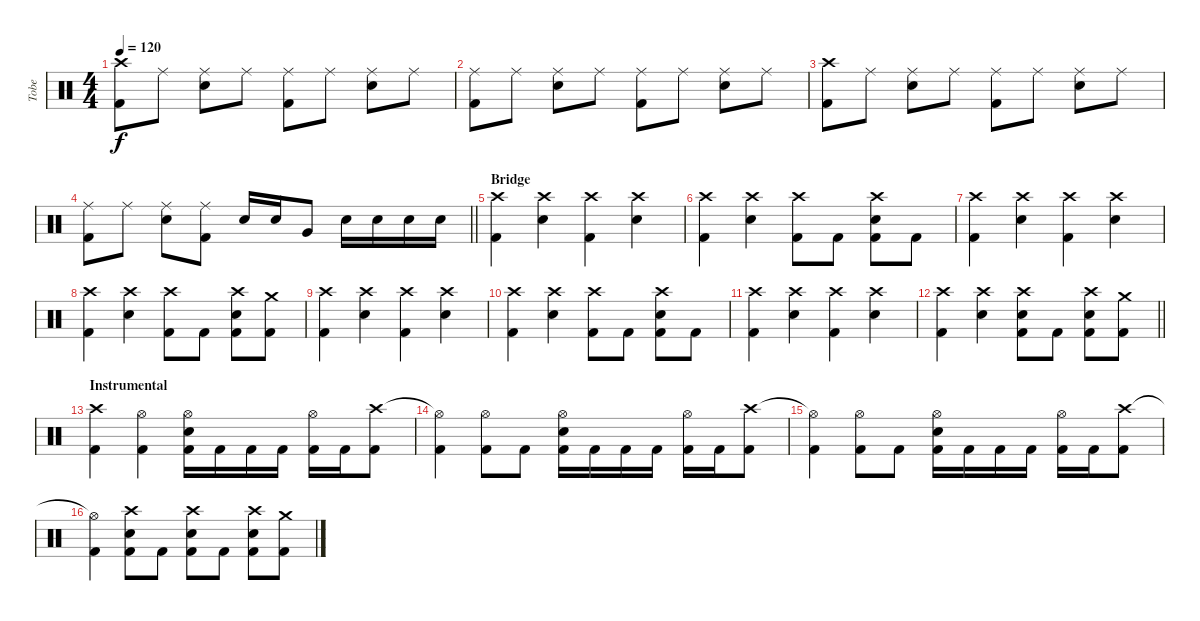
\track ("Tobe" "Tobe") {instrument percussion}
\staff {score}
\articulation defaults
\ts (4 4)
\tempo 120
\clef neutral
\ks c
("Crash high (hit)" "Kick (hit) 2").8{dy f} "Ride (middle)".8 ("Ride (middle)" "Snare (hit) 2").8 "Ride (middle)".8 ("Ride (middle)" "Kick (hit) 2").8 "Ride (middle)".8 ("Ride (middle)" "Snare (hit) 2").8 "Ride (middle)".8 |
("Ride (middle)" "Kick (hit) 2").8 "Ride (middle)".8 ("Ride (middle)" "Snare (hit) 2").8 "Ride (middle)".8 ("Ride (middle)" "Kick (hit) 2").8 "Ride (middle)".8 ("Ride (middle)" "Snare (hit) 2").8 "Ride (middle)".8 |
("Crash high (hit)" "Kick (hit) 2").8 "Ride (middle)".8 ("Ride (middle)" "Snare (hit) 2").8 "Ride (middle)".8 ("Ride (middle)" "Kick (hit) 2").8 "Ride (middle)".8 ("Ride (middle)" "Snare (hit) 2").8 "Ride (middle)".8 |
\barLineRight lightlight
("Ride (middle)" "Kick (hit) 2").8 "Ride (middle)".8 ("Ride (middle)" "Snare (hit) 2").8 ("Ride (middle)" "Kick (hit) 2").8 "Snare (hit) 2".16 "Snare (hit) 2".16 "Very Low Tom (hit)".8 "Snare (hit) 2".16 "Snare (hit) 2".16 "Snare (hit) 2".16 "Snare (hit) 2".16 |
\section ("" "Bridge")
("Crash high (hit)" "Kick (hit) 2").4 ("Crash high (hit)" "Snare (hit) 2").4 ("Crash high (hit)" "Kick (hit) 2").4 ("Crash high (hit)" "Snare (hit) 2").4 |
("Crash high (hit)" "Kick (hit) 2").4 ("Crash high (hit)" "Snare (hit) 2").4 ("Crash high (hit)" "Kick (hit) 2").8 "Kick (hit) 2".8 ("Crash high (hit)" "Snare (hit) 2" "Kick (hit) 2").8 "Kick (hit) 2".8 |
("Crash high (hit)" "Kick (hit) 2").4 ("Crash high (hit)" "Snare (hit) 2").4 ("Crash high (hit)" "Kick (hit) 2").4 ("Crash high (hit)" "Snare (hit) 2").4 |
("Crash high (hit)" "Kick (hit) 2").4 ("Crash high (hit)" "Snare (hit) 2").4 ("Crash high (hit)" "Kick (hit) 2").8 "Kick (hit) 2".8 ("Crash high (hit)" "Snare (hit) 2" "Kick (hit) 2").8 ("Crash medium (hit)" "Kick (hit) 2").8 |
("Crash high (hit)" "Kick (hit) 2").4 ("Crash high (hit)" "Snare (hit) 2").4 ("Crash high (hit)" "Kick (hit) 2").4 ("Crash high (hit)" "Snare (hit) 2").4 |
("Crash high (hit)" "Kick (hit) 2").4 ("Crash high (hit)" "Snare (hit) 2").4 ("Crash high (hit)" "Kick (hit) 2").8 "Kick (hit) 2".8 ("Crash high (hit)" "Snare (hit) 2" "Kick (hit) 2").8 "Kick (hit) 2".8 |
("Crash high (hit)" "Kick (hit) 2").4 ("Crash high (hit)" "Snare (hit) 2").4 ("Crash high (hit)" "Kick (hit) 2").4 ("Crash high (hit)" "Snare (hit) 2").4 |
\barLineRight lightlight
("Crash high (hit)" "Kick (hit) 2").4 ("Crash high (hit)" "Snare (hit) 2").4 ("Crash high (hit)" "Snare (hit) 2" "Kick (hit) 2").8 "Kick (hit) 2".8 ("Crash high (hit)" "Snare (hit) 2" "Kick (hit) 2").8 ("Crash medium (hit)" "Kick (hit) 2").8 |
\section ("" "Instrumental")
("Crash high (hit)" "Kick (hit) 2").4 ("Hi-Hat (open)" "Kick (hit) 2").4 ("Hi-Hat (open)" "Snare (hit) 2" "Kick (hit) 2").16 "Kick (hit) 2".16 "Kick (hit) 2".16 "Kick (hit) 2".16 ("Hi-Hat (open)" "Kick (hit) 2").16 "Kick (hit) 2".16 ("Crash high (hit)" "Kick (hit) 2").8 |
("Hi-Hat (open)"{t} "Kick (hit) 2").4 ("Hi-Hat (open)" "Kick (hit) 2").8 "Kick (hit) 2".8 ("Hi-Hat (open)" "Snare (hit) 2" "Kick (hit) 2").16 "Kick (hit) 2".16 "Kick (hit) 2".16 "Kick (hit) 2".16 ("Hi-Hat (open)" "Kick (hit) 2").16 "Kick (hit) 2".16 ("Crash high (hit)" "Kick (hit) 2").8 |
("Hi-Hat (open)"{t} "Kick (hit) 2").4 ("Hi-Hat (open)" "Kick (hit) 2").8 "Kick (hit) 2".8 ("Hi-Hat (open)" "Snare (hit) 2" "Kick (hit) 2").16 "Kick (hit) 2".16 "Kick (hit) 2".16 "Kick (hit) 2".16 ("Hi-Hat (open)" "Kick (hit) 2").16 "Kick (hit) 2".16 ("Crash high (hit)" "Kick (hit) 2").8 |
("Hi-Hat (open)"{t} "Kick (hit) 2").4 ("Crash high (hit)" "Snare (hit) 2" "Kick (hit) 2").8 "Kick (hit) 2".8 ("Crash high (hit)" "Snare (hit) 2" "Kick (hit) 2").8 "Kick (hit) 2".8 ("Crash high (hit)" "Snare (hit) 2" "Kick (hit) 2").8 ("Crash medium (hit)" "Kick (hit) 2").8
